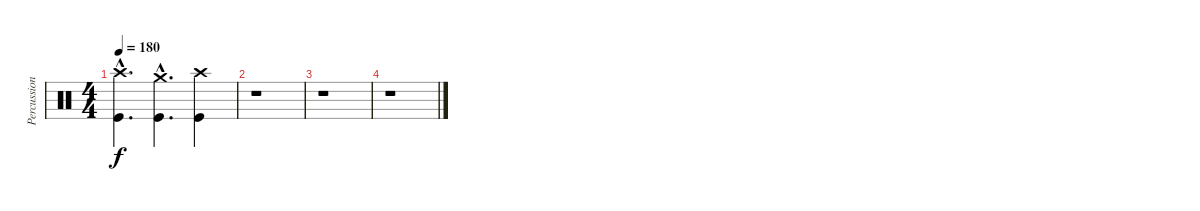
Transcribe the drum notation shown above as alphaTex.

\track ("Percussion" "Percussion") {instrument percussion}
\staff {score}
\articulation defaults
\ts (4 4)
\tempo 180
\clef neutral
\ks c
("Crash high (hit)"{hac} "Kick (hit)"{hac}).4{d dy f} ("Crash medium (hit)"{hac} "Kick (hit)"{hac}).4{d} ("Crash high (hit)" "Kick (hit)").4 |
r.1 |
r.1 |
r.1
